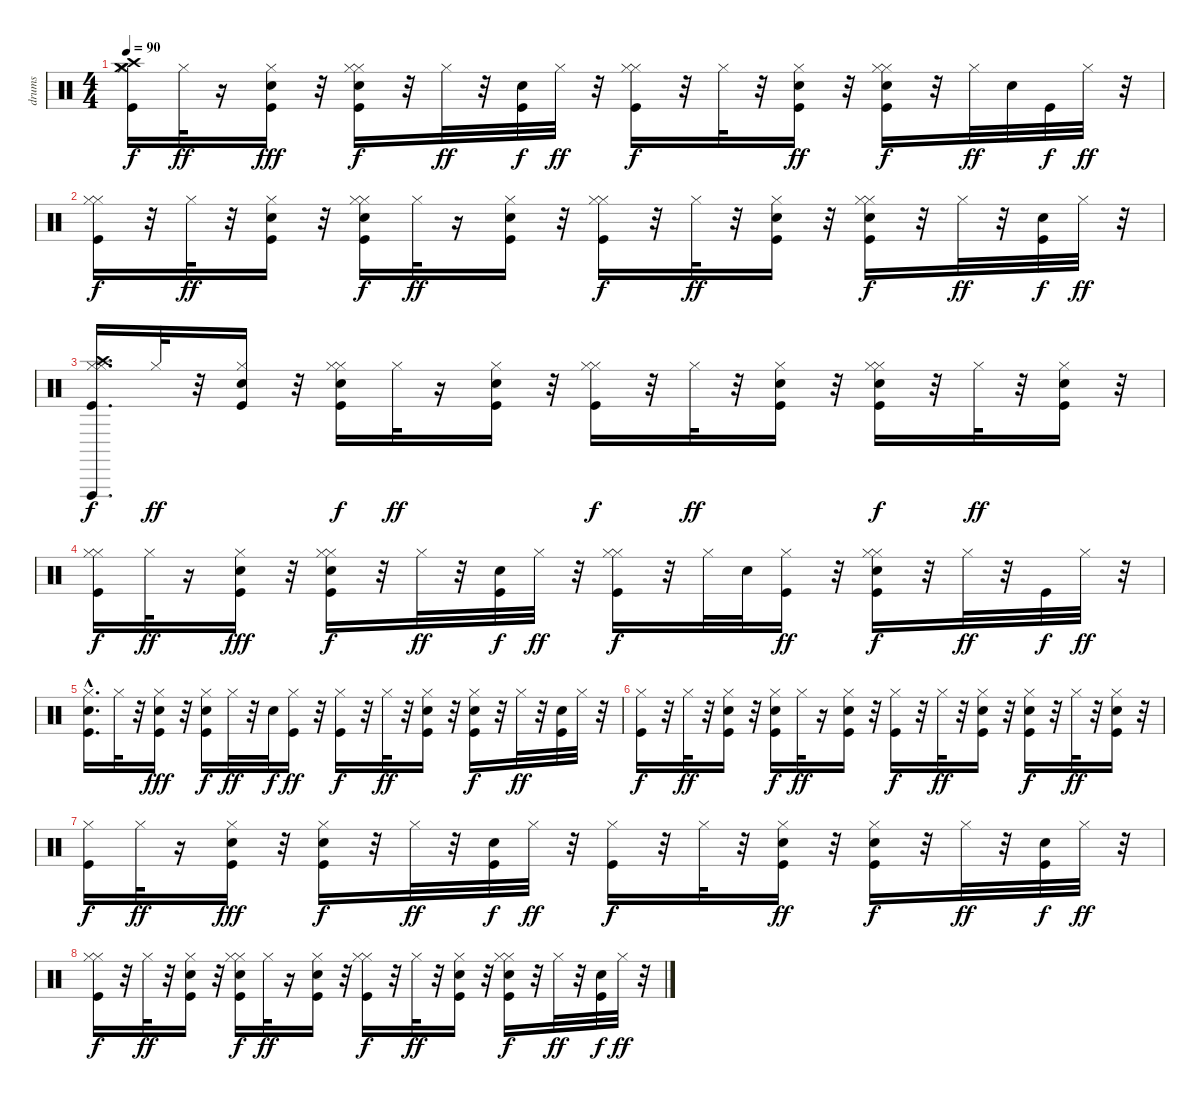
\track ("drums" "drums") {instrument percussion}
\staff {score}
\articulation defaults
\ts (4 4)
\tempo 90
\clef neutral
\ks c
("Kick (hit)" "Crash high (hit)" "Crash medium (hit)" "Hi-Hat (closed)" "Hi-Hat (closed)").16{dy f} "Hi-Hat (closed)".32{dy ff} r.16 ("Snare (hit)" "Kick (hit)" "Hi-Hat (closed)").16{dy fff} r.32 ("Kick (hit)" "Electric Snare (hit)" "Hi-Hat (closed)" "Hi-Hat (closed)").16{dy f} r.32 "Hi-Hat (closed)".32{dy ff} r.32 ("Kick (hit)" "Snare (hit)").32{dy f} "Hi-Hat (closed)".32{dy ff} r.32 ("Kick (hit)" "Hi-Hat (closed)" "Hi-Hat (closed)").16{dy f} r.32 "Hi-Hat (closed)".32 r.32 ("Snare (hit)" "Kick (hit)" "Hi-Hat (closed)").16{dy ff} r.32 ("Kick (hit)" "Electric Snare (hit)" "Hi-Hat (closed)" "Hi-Hat (closed)").16{dy f} r.32 "Hi-Hat (closed)".32{dy ff} "Snare (hit)".32 "Kick (hit)".32{dy f} "Hi-Hat (closed)".32{dy ff} r.32 |
("Kick (hit)" "Hi-Hat (closed)" "Hi-Hat (closed)").16{dy f} r.32 "Hi-Hat (closed)".32{dy ff} r.32 ("Snare (hit)" "Kick (hit)" "Hi-Hat (closed)").16 r.32 ("Kick (hit)" "Electric Snare (hit)" "Hi-Hat (closed)" "Hi-Hat (closed)").16{dy f} "Hi-Hat (closed)".32{dy ff} r.16 ("Kick (hit)" "Snare (hit)" "Hi-Hat (closed)").16 r.32 ("Kick (hit)" "Hi-Hat (closed)" "Hi-Hat (closed)").16{dy f} r.32 "Hi-Hat (closed)".32{dy ff} r.32 ("Snare (hit)" "Kick (hit)" "Hi-Hat (closed)").16 r.32 ("Kick (hit)" "Electric Snare (hit)" "Hi-Hat (closed)" "Hi-Hat (closed)").16{dy f} r.32 "Hi-Hat (closed)".32{dy ff} r.32 ("Snare (hit)" "Kick (hit)").32{dy f} "Hi-Hat (closed)".32{dy ff} r.32 |
("Kick (hit)" "Crash high (hit)" "Hi-Hat (closed)" "Hi-Hat (closed)" "Vibraslap (hit)").16{d dy f} "Hi-Hat (closed)".32{dy ff} r.32 ("Snare (hit)" "Kick (hit)" "Hi-Hat (closed)").16 r.32 ("Kick (hit)" "Electric Snare (hit)" "Hi-Hat (closed)" "Hi-Hat (closed)").16{dy f} "Hi-Hat (closed)".32{dy ff} r.16 ("Snare (hit)" "Kick (hit)" "Hi-Hat (closed)").16 r.32 ("Kick (hit)" "Hi-Hat (closed)" "Hi-Hat (closed)").16{dy f} r.32 "Hi-Hat (closed)".32{dy ff} r.32 ("Snare (hit)" "Kick (hit)" "Hi-Hat (closed)").16 r.32 ("Kick (hit)" "Electric Snare (hit)" "Hi-Hat (closed)" "Hi-Hat (closed)").16{dy f} r.32 "Hi-Hat (closed)".32{dy ff} r.32 ("Kick (hit)" "Snare (hit)" "Hi-Hat (closed)").16 r.32 |
("Kick (hit)" "Hi-Hat (closed)" "Hi-Hat (closed)").16{dy f} "Hi-Hat (closed)".32{dy ff} r.16 ("Kick (hit)" "Snare (hit)" "Hi-Hat (closed)").16{dy fff} r.32 ("Kick (hit)" "Electric Snare (hit)" "Hi-Hat (closed)" "Hi-Hat (closed)").16{dy f} r.32 "Hi-Hat (closed)".32{dy ff} r.32 ("Kick (hit)" "Snare (hit)").32{dy f} "Hi-Hat (closed)".32{dy ff} r.32 ("Kick (hit)" "Hi-Hat (closed)" "Hi-Hat (closed)").16{dy f} r.32 "Hi-Hat (closed)".32 "Snare (hit)".32 ("Kick (hit)" "Hi-Hat (closed)").16{dy ff} r.32 ("Kick (hit)" "Electric Snare (hit)" "Hi-Hat (closed)" "Hi-Hat (closed)").16{dy f} r.32 "Hi-Hat (closed)".32{dy ff} r.32 "Kick (hit)".32{dy f} "Hi-Hat (closed)".32{dy ff} r.32 |
("Kick (hit)" "Hi-Hat (closed)" "Snare (hit)"{hac}).16{d} "Hi-Hat (closed)".32 r.32 ("Kick (hit)" "Hi-Hat (closed)" "Snare (hit)").16{dy fff} r.32 ("Kick (hit)" "Electric Snare (hit)" "Hi-Hat (closed)").16{dy f} "Hi-Hat (closed)".32{dy ff} r.32 "Snare (hit)".32{dy f} ("Kick (hit)" "Hi-Hat (closed)").16{dy ff} r.32 ("Kick (hit)" "Hi-Hat (closed)").16{dy f} r.32 "Hi-Hat (closed)".32{dy ff} r.32 ("Kick (hit)" "Snare (hit)" "Hi-Hat (closed)").16 r.32 ("Kick (hit)" "Electric Snare (hit)" "Hi-Hat (closed)").16{dy f} r.32 "Hi-Hat (closed)".32{dy ff} r.32 ("Kick (hit)" "Snare (hit)").32 "Hi-Hat (closed)".32 r.32 |
("Kick (hit)" "Hi-Hat (closed)").16{dy f} r.32 "Hi-Hat (closed)".32{dy ff} r.32 ("Kick (hit)" "Snare (hit)" "Hi-Hat (closed)").16 r.32 ("Kick (hit)" "Electric Snare (hit)" "Hi-Hat (closed)").16{dy f} "Hi-Hat (closed)".32{dy ff} r.16 ("Kick (hit)" "Hi-Hat (closed)" "Snare (hit)").16 r.32 ("Kick (hit)" "Hi-Hat (closed)").16{dy f} r.32 "Hi-Hat (closed)".32{dy ff} r.32 ("Snare (hit)" "Kick (hit)" "Hi-Hat (closed)").16 r.32 ("Kick (hit)" "Electric Snare (hit)" "Hi-Hat (closed)").16{dy f} r.32 "Hi-Hat (closed)".32{dy ff} r.32 ("Kick (hit)" "Snare (hit)" "Hi-Hat (closed)").16 r.32 |
("Kick (hit)" "Hi-Hat (closed)").16{dy f} "Hi-Hat (closed)".32{dy ff} r.16 ("Kick (hit)" "Snare (hit)" "Hi-Hat (closed)").16{dy fff} r.32 ("Kick (hit)" "Electric Snare (hit)" "Hi-Hat (closed)").16{dy f} r.32 "Hi-Hat (closed)".32{dy ff} r.32 ("Kick (hit)" "Snare (hit)").32{dy f} "Hi-Hat (closed)".32{dy ff} r.32 ("Kick (hit)" "Hi-Hat (closed)").16{dy f} r.32 "Hi-Hat (closed)".32 r.32 ("Kick (hit)" "Snare (hit)" "Hi-Hat (closed)").16{dy ff} r.32 ("Kick (hit)" "Electric Snare (hit)" "Hi-Hat (closed)").16{dy f} r.32 "Hi-Hat (closed)".32{dy ff} r.32 ("Kick (hit)" "Snare (hit)").32{dy f} "Hi-Hat (closed)".32{dy ff} r.32 |
("Kick (hit)" "Hi-Hat (closed)" "Hi-Hat (closed)").16{dy f} r.32 "Hi-Hat (closed)".32{dy ff} r.32 ("Snare (hit)" "Kick (hit)" "Hi-Hat (closed)").16 r.32 ("Kick (hit)" "Electric Snare (hit)" "Hi-Hat (closed)" "Hi-Hat (closed)").16{dy f} "Hi-Hat (closed)".32{dy ff} r.16 ("Snare (hit)" "Kick (hit)" "Hi-Hat (closed)").16 r.32 ("Kick (hit)" "Hi-Hat (closed)" "Hi-Hat (closed)").16{dy f} r.32 "Hi-Hat (closed)".32{dy ff} r.32 ("Snare (hit)" "Kick (hit)" "Hi-Hat (closed)").16 r.32 ("Kick (hit)" "Electric Snare (hit)" "Hi-Hat (closed)" "Hi-Hat (closed)").16{dy f} r.32 "Hi-Hat (closed)".32{dy ff} r.32 ("Kick (hit)" "Snare (hit)").32{dy f} "Hi-Hat (closed)".32{dy ff} r.32
